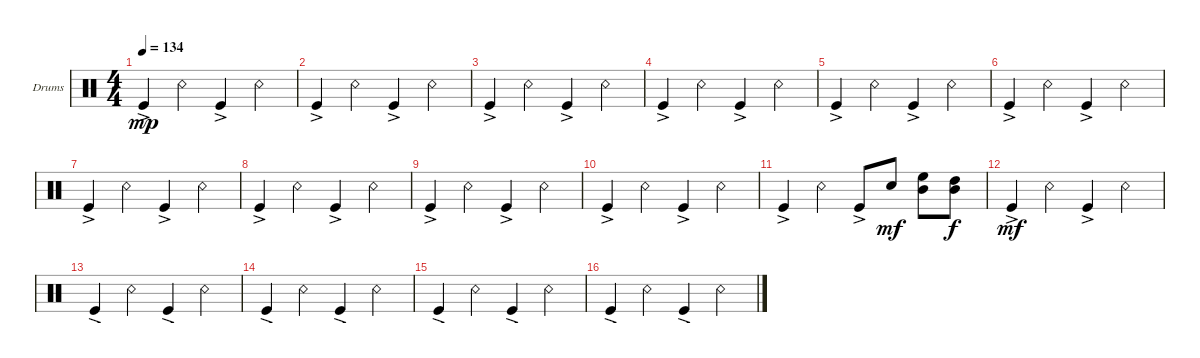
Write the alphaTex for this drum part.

\defaultSystemsLayout 4
\bracketExtendMode groupsimilarinstruments
\firstSystemTrackNameOrientation horizontal
\otherSystemsTrackNameOrientation horizontal
\track ("Drumkit" "Drums") {instrument percussion}
\staff {score}
\articulation defaults
\ts (4 4)
\tempo 134
\clef neutral
\ks c "Kick (hit)"{ac}.4{dy mp} "Snare (rim shot)".4 "Kick (hit)"{ac}.4 "Snare (rim shot)".4
|
"Kick (hit)"{ac}.4 "Snare (rim shot)".4 "Kick (hit)"{ac}.4 "Snare (rim shot)".4 |
"Kick (hit)"{ac}.4 "Snare (rim shot)".4 "Kick (hit)"{ac}.4 "Snare (rim shot)".4 |
"Kick (hit)"{ac}.4 "Snare (rim shot)".4 "Kick (hit)"{ac}.4 "Snare (rim shot)".4 |
"Kick (hit)"{ac}.4 "Snare (rim shot)".4 "Kick (hit)"{ac}.4 "Snare (rim shot)".4 |
"Kick (hit)"{ac}.4 "Snare (rim shot)".4 "Kick (hit)"{ac}.4 "Snare (rim shot)".4 |
"Kick (hit)"{ac}.4 "Snare (rim shot)".4 "Kick (hit)"{ac}.4 "Snare (rim shot)".4 |
"Kick (hit)"{ac}.4 "Snare (rim shot)".4 "Kick (hit)"{ac}.4 "Snare (rim shot)".4 |
"Kick (hit)"{ac}.4 "Snare (rim shot)".4 "Kick (hit)"{ac}.4 "Snare (rim shot)".4 |
"Kick (hit)"{ac}.4 "Snare (rim shot)".4 "Kick (hit)"{ac}.4 "Snare (rim shot)".4 |
"Kick (hit)"{ac}.4 "Snare (rim shot)".4 "Kick (hit)"{ac}.8 "Snare (hit) 2".8{dy mf} ("High Floor Tom (hit)" "Mid Tom (hit)").8 ("Mid Tom (hit)" "High Tom (hit)").8{dy f} |
"Kick (hit)"{ac}.4{dy mf} "Snare (rim shot)".4 "Kick (hit)"{ac}.4 "Snare (rim shot)".4 |
"Kick (hit)"{ac}.4 "Snare (rim shot)".4 "Kick (hit)"{ac}.4 "Snare (rim shot)".4 |
"Kick (hit)"{ac}.4 "Snare (rim shot)".4 "Kick (hit)"{ac}.4 "Snare (rim shot)".4 |
"Kick (hit)"{ac}.4 "Snare (rim shot)".4 "Kick (hit)"{ac}.4 "Snare (rim shot)".4 |
"Kick (hit)"{ac}.4 "Snare (rim shot)".4 "Kick (hit)"{ac}.4 "Snare (rim shot)".4
